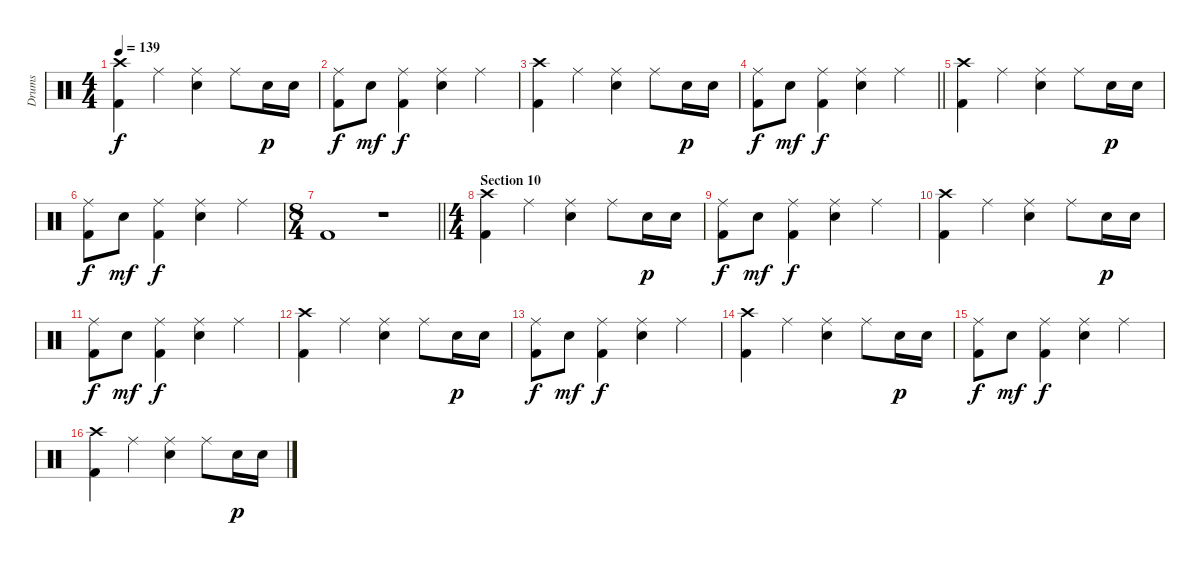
\track ("Drums" "Drums") {instrument percussion}
\staff {score}
\articulation defaults
\ts (4 4)
\tempo 139
\clef neutral
\ks c
("Crash high (hit)" "Kick (hit) 2").4{dy f} "Ride (middle)".4 ("Ride (middle)" "Electric Snare (hit)").4 "Ride (middle)".8 "Electric Snare (hit)".16{dy p} "Electric Snare (hit)".16 |
("Ride (middle)" "Kick (hit) 2").8{dy f} "Electric Snare (hit)".8{dy mf} ("Ride (middle)" "Kick (hit) 2").4{dy f} ("Ride (middle)" "Electric Snare (hit)").4 "Ride (middle)".4 |
("Crash high (hit)" "Kick (hit) 2").4 "Ride (middle)".4 ("Ride (middle)" "Electric Snare (hit)").4 "Ride (middle)".8 "Electric Snare (hit)".16{dy p} "Electric Snare (hit)".16 |
\barLineRight lightlight
("Ride (middle)" "Kick (hit) 2").8{dy f} "Electric Snare (hit)".8{dy mf} ("Ride (middle)" "Kick (hit) 2").4{dy f} ("Ride (middle)" "Electric Snare (hit)").4 "Ride (middle)".4 |
("Crash high (hit)" "Kick (hit) 2").4 "Ride (middle)".4 ("Ride (middle)" "Electric Snare (hit)").4 "Ride (middle)".8 "Electric Snare (hit)".16{dy p} "Electric Snare (hit)".16 |
("Ride (middle)" "Kick (hit) 2").8{dy f} "Electric Snare (hit)".8{dy mf} ("Ride (middle)" "Kick (hit) 2").4{dy f} ("Ride (middle)" "Electric Snare (hit)").4 "Ride (middle)".4 |
\ts (8 4)
\barLineRight lightlight "Kick (hit) 2".1
r.1 |
\ts (4 4)
\section ("" "Section 10")
("Crash high (hit)" "Kick (hit) 2").4 "Ride (middle)".4 ("Ride (middle)" "Electric Snare (hit)").4 "Ride (middle)".8 "Electric Snare (hit)".16{dy p} "Electric Snare (hit)".16 |
("Ride (middle)" "Kick (hit) 2").8{dy f} "Electric Snare (hit)".8{dy mf} ("Ride (middle)" "Kick (hit) 2").4{dy f} ("Ride (middle)" "Electric Snare (hit)").4 "Ride (middle)".4 |
("Crash high (hit)" "Kick (hit) 2").4 "Ride (middle)".4 ("Ride (middle)" "Electric Snare (hit)").4 "Ride (middle)".8 "Electric Snare (hit)".16{dy p} "Electric Snare (hit)".16 |
("Ride (middle)" "Kick (hit) 2").8{dy f} "Electric Snare (hit)".8{dy mf} ("Ride (middle)" "Kick (hit) 2").4{dy f} ("Ride (middle)" "Electric Snare (hit)").4 "Ride (middle)".4 |
("Crash high (hit)" "Kick (hit) 2").4 "Ride (middle)".4 ("Ride (middle)" "Electric Snare (hit)").4 "Ride (middle)".8 "Electric Snare (hit)".16{dy p} "Electric Snare (hit)".16 |
("Ride (middle)" "Kick (hit) 2").8{dy f} "Electric Snare (hit)".8{dy mf} ("Ride (middle)" "Kick (hit) 2").4{dy f} ("Ride (middle)" "Electric Snare (hit)").4 "Ride (middle)".4 |
("Crash high (hit)" "Kick (hit) 2").4 "Ride (middle)".4 ("Ride (middle)" "Electric Snare (hit)").4 "Ride (middle)".8 "Electric Snare (hit)".16{dy p} "Electric Snare (hit)".16 |
("Ride (middle)" "Kick (hit) 2").8{dy f} "Electric Snare (hit)".8{dy mf} ("Ride (middle)" "Kick (hit) 2").4{dy f} ("Ride (middle)" "Electric Snare (hit)").4 "Ride (middle)".4 |
("Crash high (hit)" "Kick (hit) 2").4 "Ride (middle)".4 ("Ride (middle)" "Electric Snare (hit)").4 "Ride (middle)".8 "Electric Snare (hit)".16{dy p} "Electric Snare (hit)".16
